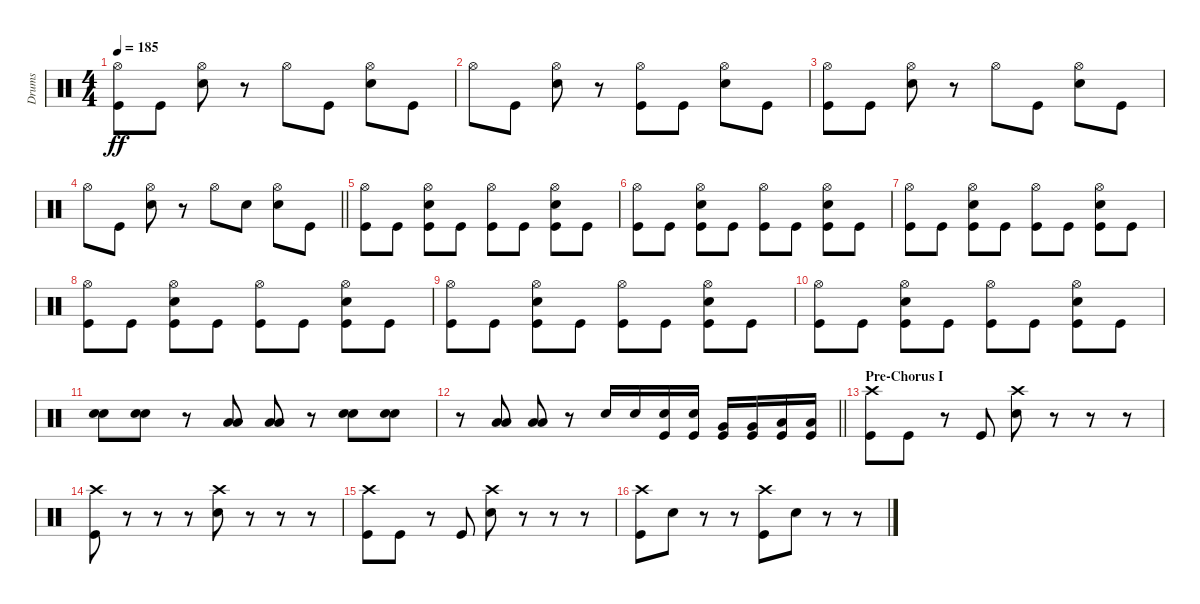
\track ("Drums" "Drums") {instrument percussion}
\staff {score}
\articulation defaults
\ts (4 4)
\tempo 185
\clef neutral
\ks c
("Hi-Hat (open)" "Kick (hit)").8{dy ff} "Kick (hit)".8 ("Hi-Hat (open)" "Electric Snare (hit)").8 r.8 "Hi-Hat (open)".8 "Kick (hit)".8 ("Hi-Hat (open)" "Electric Snare (hit)").8 "Kick (hit)".8 |
"Hi-Hat (open)".8 "Kick (hit)".8 ("Hi-Hat (open)" "Electric Snare (hit)").8 r.8 ("Hi-Hat (open)" "Kick (hit)").8 "Kick (hit)".8 ("Hi-Hat (open)" "Electric Snare (hit)").8 "Kick (hit)".8 |
("Hi-Hat (open)" "Kick (hit)").8 "Kick (hit)".8 ("Hi-Hat (open)" "Electric Snare (hit)").8 r.8 "Hi-Hat (open)".8 "Kick (hit)".8 ("Hi-Hat (open)" "Electric Snare (hit)").8 "Kick (hit)".8 |
\barLineRight lightlight "Hi-Hat (open)".8 "Kick (hit)".8
("Hi-Hat (open)" "Electric Snare (hit)").8 r.8 "Hi-Hat (open)".8 "Electric Snare (hit)".8 ("Hi-Hat (open)" "Electric Snare (hit)").8 "Kick (hit)".8 |
("Hi-Hat (open)" "Kick (hit)").8 "Kick (hit)".8 ("Hi-Hat (open)" "Electric Snare (hit)" "Kick (hit)").8 "Kick (hit)".8 ("Hi-Hat (open)" "Kick (hit)").8 "Kick (hit)".8 ("Hi-Hat (open)" "Electric Snare (hit)" "Kick (hit)").8 "Kick (hit)".8 |
("Hi-Hat (open)" "Kick (hit)").8 "Kick (hit)".8 ("Hi-Hat (open)" "Electric Snare (hit)" "Kick (hit)").8 "Kick (hit)".8 ("Hi-Hat (open)" "Kick (hit)").8 "Kick (hit)".8 ("Hi-Hat (open)" "Electric Snare (hit)" "Kick (hit)").8 "Kick (hit)".8 |
("Hi-Hat (open)" "Kick (hit)").8 "Kick (hit)".8 ("Hi-Hat (open)" "Electric Snare (hit)" "Kick (hit)").8 "Kick (hit)".8 ("Hi-Hat (open)" "Kick (hit)").8 "Kick (hit)".8 ("Hi-Hat (open)" "Electric Snare (hit)" "Kick (hit)").8 "Kick (hit)".8 |
("Hi-Hat (open)" "Kick (hit)").8 "Kick (hit)".8 ("Hi-Hat (open)" "Electric Snare (hit)" "Kick (hit)").8 "Kick (hit)".8 ("Hi-Hat (open)" "Kick (hit)").8 "Kick (hit)".8 ("Hi-Hat (open)" "Electric Snare (hit)" "Kick (hit)").8 "Kick (hit)".8 |
("Hi-Hat (open)" "Kick (hit)").8 "Kick (hit)".8 ("Hi-Hat (open)" "Electric Snare (hit)" "Kick (hit)").8 "Kick (hit)".8 ("Hi-Hat (open)" "Kick (hit)").8 "Kick (hit)".8 ("Hi-Hat (open)" "Electric Snare (hit)" "Kick (hit)").8 "Kick (hit)".8 |
("Hi-Hat (open)" "Kick (hit)").8 "Kick (hit)".8 ("Hi-Hat (open)" "Electric Snare (hit)" "Kick (hit)").8 "Kick (hit)".8 ("Hi-Hat (open)" "Kick (hit)").8 "Kick (hit)".8 ("Hi-Hat (open)" "Electric Snare (hit)" "Kick (hit)").8 "Kick (hit)".8 |
("Electric Snare (hit)" "Electric Snare (hit)").8 ("Electric Snare (hit)" "Electric Snare (hit)").8 r.8 ("Low Floor Tom (hit)" "Low Floor Tom (hit)").8 ("Low Floor Tom (hit)" "Low Floor Tom (hit)").8 r.8 ("Electric Snare (hit)" "Electric Snare (hit)").8 ("Electric Snare (hit)" "Electric Snare (hit)").8 |
\barLineRight lightlight
r.8 ("Low Floor Tom (hit)" "Low Floor Tom (hit)").8 ("Low Floor Tom (hit)" "Low Floor Tom (hit)").8 r.8 "Electric Snare (hit)".16 "Electric Snare (hit)".16 ("Electric Snare (hit)" "Kick (hit)").16 ("Electric Snare (hit)" "Kick (hit)").16 ("Very Low Tom (hit)" "Kick (hit)").16 ("Very Low Tom (hit)" "Kick (hit)").16 ("Low Floor Tom (hit)" "Kick (hit)").16 ("Low Floor Tom (hit)" "Kick (hit)").16 |
\section ("" "Pre-Chorus I")
("Crash high (hit)" "Kick (hit)").8 "Kick (hit)".8 r.8 "Kick (hit)".8 ("Crash high (hit)" "Electric Snare (hit)").8 r.8 r.8 r.8 |
("Crash high (hit)" "Kick (hit)").8 r.8 r.8 r.8 ("Crash high (hit)" "Electric Snare (hit)").8 r.8 r.8 r.8 |
("Crash high (hit)" "Kick (hit)").8 "Kick (hit)".8 r.8 "Kick (hit)".8 ("Crash high (hit)" "Electric Snare (hit)").8 r.8 r.8 r.8 |
("Crash high (hit)" "Kick (hit)").8 "Electric Snare (hit)".8 r.8 r.8 ("Crash high (hit)" "Kick (hit)").8 "Electric Snare (hit)".8 r.8 r.8
